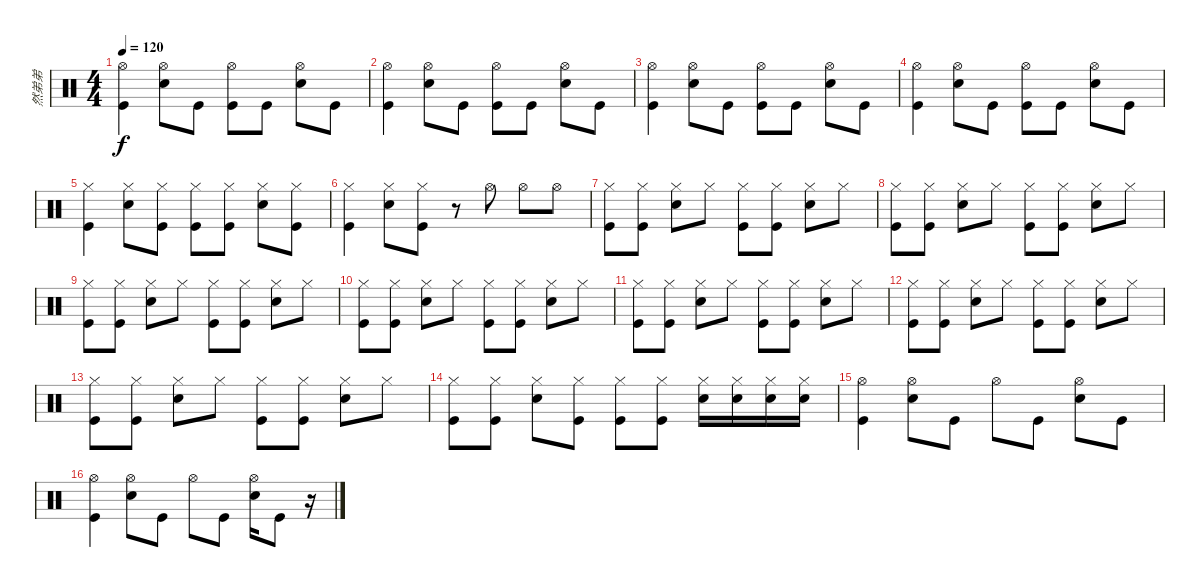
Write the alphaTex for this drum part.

\track ("然弟弟" "然弟弟") {instrument percussion}
\staff {score}
\articulation defaults
\ts (4 4)
\tempo 120
\clef neutral
\ks c
("Hi-Hat (open)" "Kick (hit)").4{dy f} ("Hi-Hat (open)" "Electric Snare (hit)").8 "Kick (hit)".8 ("Hi-Hat (open)" "Kick (hit)").8 "Kick (hit)".8 ("Hi-Hat (open)" "Electric Snare (hit)").8 "Kick (hit)".8 |
("Hi-Hat (open)" "Kick (hit)").4 ("Hi-Hat (open)" "Electric Snare (hit)").8 "Kick (hit)".8 ("Hi-Hat (open)" "Kick (hit)").8 "Kick (hit)".8 ("Hi-Hat (open)" "Electric Snare (hit)").8 "Kick (hit)".8 |
("Hi-Hat (open)" "Kick (hit)").4 ("Hi-Hat (open)" "Electric Snare (hit)").8 "Kick (hit)".8 ("Hi-Hat (open)" "Kick (hit)").8 "Kick (hit)".8 ("Hi-Hat (open)" "Electric Snare (hit)").8 "Kick (hit)".8 |
("Hi-Hat (open)" "Kick (hit)").4 ("Hi-Hat (open)" "Electric Snare (hit)").8 "Kick (hit)".8 ("Hi-Hat (open)" "Kick (hit)").8 "Kick (hit)".8 ("Hi-Hat (open)" "Electric Snare (hit)").8 "Kick (hit)".8 |
("Hi-Hat (closed)" "Kick (hit)").4 ("Hi-Hat (closed)" "Electric Snare (hit)").8 ("Hi-Hat (closed)" "Kick (hit)").8 ("Hi-Hat (closed)" "Kick (hit)").8 ("Hi-Hat (closed)" "Kick (hit)").8 ("Hi-Hat (closed)" "Electric Snare (hit)").8 ("Hi-Hat (closed)" "Kick (hit)").8 |
("Hi-Hat (closed)" "Kick (hit)").4 ("Hi-Hat (closed)" "Electric Snare (hit)").8 ("Hi-Hat (closed)" "Kick (hit)").8 r.8 "Hi-Hat (open)".8 "Hi-Hat (open)".8 "Hi-Hat (open)".8 |
("Hi-Hat (closed)" "Kick (hit)").8 ("Hi-Hat (closed)" "Kick (hit)").8 ("Hi-Hat (closed)" "Electric Snare (hit)").8 "Hi-Hat (closed)".8 ("Hi-Hat (closed)" "Kick (hit)").8 ("Hi-Hat (closed)" "Kick (hit)").8 ("Hi-Hat (closed)" "Electric Snare (hit)").8 "Hi-Hat (closed)".8 |
("Hi-Hat (closed)" "Kick (hit)").8 ("Hi-Hat (closed)" "Kick (hit)").8 ("Hi-Hat (closed)" "Electric Snare (hit)").8 "Hi-Hat (closed)".8 ("Hi-Hat (closed)" "Kick (hit)").8 ("Hi-Hat (closed)" "Kick (hit)").8 ("Hi-Hat (closed)" "Electric Snare (hit)").8 "Hi-Hat (closed)".8 |
("Hi-Hat (closed)" "Kick (hit)").8 ("Hi-Hat (closed)" "Kick (hit)").8 ("Hi-Hat (closed)" "Electric Snare (hit)").8 "Hi-Hat (closed)".8 ("Hi-Hat (closed)" "Kick (hit)").8 ("Hi-Hat (closed)" "Kick (hit)").8 ("Hi-Hat (closed)" "Electric Snare (hit)").8 "Hi-Hat (closed)".8 |
("Hi-Hat (closed)" "Kick (hit)").8 ("Hi-Hat (closed)" "Kick (hit)").8 ("Hi-Hat (closed)" "Electric Snare (hit)").8 "Hi-Hat (closed)".8 ("Hi-Hat (closed)" "Kick (hit)").8 ("Hi-Hat (closed)" "Kick (hit)").8 ("Hi-Hat (closed)" "Electric Snare (hit)").8 "Hi-Hat (closed)".8 |
("Hi-Hat (closed)" "Kick (hit)").8 ("Hi-Hat (closed)" "Kick (hit)").8 ("Hi-Hat (closed)" "Electric Snare (hit)").8 "Hi-Hat (closed)".8 ("Hi-Hat (closed)" "Kick (hit)").8 ("Hi-Hat (closed)" "Kick (hit)").8 ("Hi-Hat (closed)" "Electric Snare (hit)").8 "Hi-Hat (closed)".8 |
("Hi-Hat (closed)" "Kick (hit)").8 ("Hi-Hat (closed)" "Kick (hit)").8 ("Hi-Hat (closed)" "Electric Snare (hit)").8 "Hi-Hat (closed)".8 ("Hi-Hat (closed)" "Kick (hit)").8 ("Hi-Hat (closed)" "Kick (hit)").8 ("Hi-Hat (closed)" "Electric Snare (hit)").8 "Hi-Hat (closed)".8 |
("Hi-Hat (closed)" "Kick (hit)").8 ("Hi-Hat (closed)" "Kick (hit)").8 ("Hi-Hat (closed)" "Electric Snare (hit)").8 "Hi-Hat (closed)".8 ("Hi-Hat (closed)" "Kick (hit)").8 ("Hi-Hat (closed)" "Kick (hit)").8 ("Hi-Hat (closed)" "Electric Snare (hit)").8 "Hi-Hat (closed)".8 |
("Hi-Hat (closed)" "Kick (hit)").8 ("Hi-Hat (closed)" "Kick (hit)").8 ("Hi-Hat (closed)" "Electric Snare (hit)").8 ("Hi-Hat (closed)" "Kick (hit)").8 ("Hi-Hat (closed)" "Kick (hit)").8 ("Hi-Hat (closed)" "Kick (hit)").8 ("Hi-Hat (closed)" "Electric Snare (hit)").16 ("Hi-Hat (closed)" "Electric Snare (hit)").16 ("Hi-Hat (closed)" "Electric Snare (hit)").16 ("Hi-Hat (closed)" "Electric Snare (hit)").16 |
("Hi-Hat (open)" "Kick (hit)").4 ("Hi-Hat (open)" "Electric Snare (hit)").8 "Kick (hit)".8 "Hi-Hat (open)".8 "Kick (hit)".8 ("Hi-Hat (open)" "Electric Snare (hit)").8 "Kick (hit)".8 |
("Hi-Hat (open)" "Kick (hit)").4 ("Hi-Hat (open)" "Electric Snare (hit)").8 "Kick (hit)".8 "Hi-Hat (open)".8 "Kick (hit)".8 ("Hi-Hat (open)" "Electric Snare (hit)").16 "Kick (hit)".8 r.16
